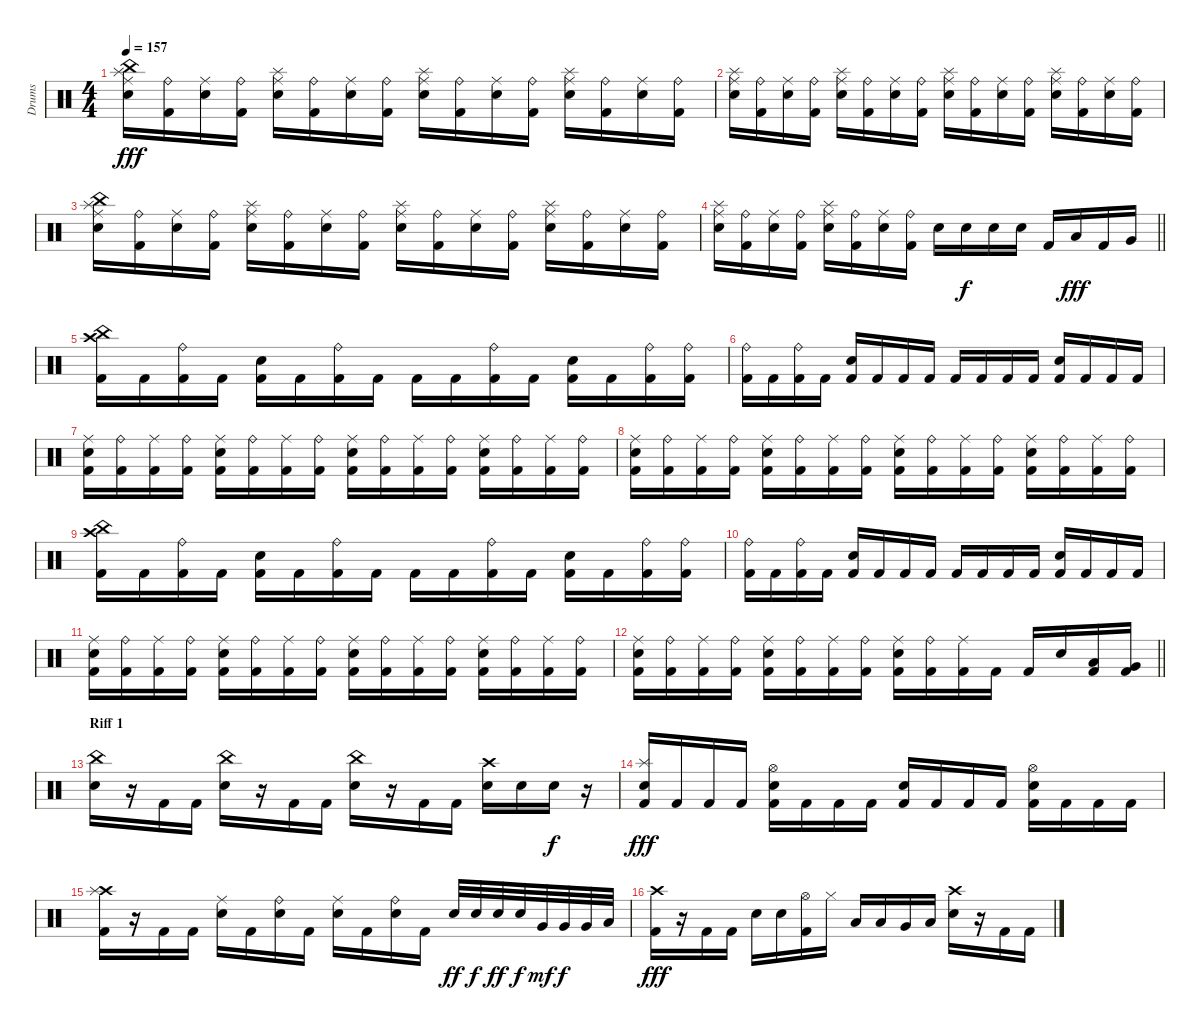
\track ("Drums" "Drums") {instrument percussion}
\staff {score}
\articulation defaults
\ts (4 4)
\tempo 157
\clef neutral
\ks c
("Snare (hit) 2" "Ride (middle)" "China (hit)" "Splash (hit)").16{dy fff} ("Kick (hit) 2" "Ride (bell)").16 ("Snare (hit) 2" "Ride (middle)").16 ("Kick (hit) 2" "Ride (bell)").16 ("Snare (hit) 2" "Ride (middle)" "Splash (hit)").16 ("Kick (hit) 2" "Ride (bell)").16 ("Snare (hit) 2" "Ride (middle)").16 ("Kick (hit) 2" "Ride (bell)").16 ("Snare (hit) 2" "Ride (middle)" "Splash (hit)").16 ("Kick (hit) 2" "Ride (bell)").16 ("Snare (hit) 2" "Ride (middle)").16 ("Kick (hit) 2" "Ride (bell)").16 ("Snare (hit) 2" "Ride (middle)" "Splash (hit)").16 ("Kick (hit) 2" "Ride (bell)").16 ("Snare (hit) 2" "Ride (middle)").16 ("Kick (hit) 2" "Ride (bell)").16 |
("Snare (hit) 2" "Ride (middle)" "Splash (hit)").16 ("Kick (hit) 2" "Ride (bell)").16 ("Snare (hit) 2" "Ride (middle)").16 ("Kick (hit) 2" "Ride (bell)").16 ("Snare (hit) 2" "Ride (middle)" "Splash (hit)").16 ("Kick (hit) 2" "Ride (bell)").16 ("Snare (hit) 2" "Ride (middle)").16 ("Kick (hit) 2" "Ride (bell)").16 ("Snare (hit) 2" "Ride (middle)" "Splash (hit)").16 ("Kick (hit) 2" "Ride (bell)").16 ("Snare (hit) 2" "Ride (middle)").16 ("Kick (hit) 2" "Ride (bell)").16 ("Snare (hit) 2" "Ride (middle)" "Splash (hit)").16 ("Kick (hit) 2" "Ride (bell)").16 ("Snare (hit) 2" "Ride (middle)").16 ("Kick (hit) 2" "Ride (bell)").16 |
("Snare (hit) 2" "Ride (middle)" "China (hit)" "Splash (hit)").16 ("Kick (hit) 2" "Ride (bell)").16 ("Snare (hit) 2" "Ride (middle)").16 ("Kick (hit) 2" "Ride (bell)").16 ("Snare (hit) 2" "Ride (middle)" "Splash (hit)").16 ("Kick (hit) 2" "Ride (bell)").16 ("Snare (hit) 2" "Ride (middle)").16 ("Kick (hit) 2" "Ride (bell)").16 ("Snare (hit) 2" "Ride (middle)" "Splash (hit)").16 ("Kick (hit) 2" "Ride (bell)").16 ("Snare (hit) 2" "Ride (middle)").16 ("Kick (hit) 2" "Ride (bell)").16 ("Snare (hit) 2" "Ride (middle)" "Splash (hit)").16 ("Kick (hit) 2" "Ride (bell)").16 ("Snare (hit) 2" "Ride (middle)").16 ("Kick (hit) 2" "Ride (bell)").16 |
\barLineRight lightlight
("Snare (hit) 2" "Ride (middle)" "Splash (hit)").16 ("Kick (hit) 2" "Ride (bell)").16 ("Snare (hit) 2" "Ride (middle)").16 ("Kick (hit) 2" "Ride (bell)").16 ("Snare (hit) 2" "Ride (middle)" "Splash (hit)").16 ("Kick (hit) 2" "Ride (bell)").16 ("Snare (hit) 2" "Ride (middle)").16 ("Kick (hit) 2" "Ride (bell)").16 "Snare (hit) 2".16 "Snare (hit) 2".16{dy f} "Snare (hit) 2".16 "Snare (hit) 2".16 "Kick (hit) 2".16 "Low Tom (hit)".16{dy fff} "Kick (hit) 2".16 "Very Low Tom (hit)".16 |
("Kick (hit) 2" "Crash high (hit)" "China (hit)").16 "Kick (hit) 2".16 ("Kick (hit) 2" "Ride (bell)").16 "Kick (hit) 2".16 ("Kick (hit) 2" "Snare (hit) 2").16 "Kick (hit) 2".16 ("Kick (hit) 2" "Ride (bell)").16 "Kick (hit) 2".16 "Kick (hit) 2".16 "Kick (hit) 2".16 ("Kick (hit) 2" "Ride (bell)").16 "Kick (hit) 2".16 ("Kick (hit) 2" "Snare (hit) 2").16 "Kick (hit) 2".16 ("Kick (hit) 2" "Ride (bell)").16 ("Kick (hit) 2" "Ride (bell)").16 |
("Kick (hit) 2" "Ride (bell)").16 "Kick (hit) 2".16 ("Kick (hit) 2" "Ride (bell)").16 "Kick (hit) 2".16 ("Kick (hit) 2" "Snare (hit) 2").16 "Kick (hit) 2".16 "Kick (hit) 2".16 "Kick (hit) 2".16 "Kick (hit) 2".16 "Kick (hit) 2".16 "Kick (hit) 2".16 "Kick (hit) 2".16 ("Kick (hit) 2" "Snare (hit) 2").16 "Kick (hit) 2".16 "Kick (hit) 2".16 "Kick (hit) 2".16 |
("Kick (hit) 2" "Snare (hit) 2" "Ride (middle)").16 ("Kick (hit) 2" "Ride (bell)").16 ("Kick (hit) 2" "Ride (middle)").16 ("Kick (hit) 2" "Ride (bell)").16 ("Kick (hit) 2" "Snare (hit) 2" "Ride (middle)").16 ("Kick (hit) 2" "Ride (bell)").16 ("Kick (hit) 2" "Ride (middle)").16 ("Kick (hit) 2" "Ride (bell)").16 ("Kick (hit) 2" "Snare (hit) 2" "Ride (middle)").16 ("Kick (hit) 2" "Ride (bell)").16 ("Kick (hit) 2" "Ride (middle)").16 ("Kick (hit) 2" "Ride (bell)").16 ("Kick (hit) 2" "Snare (hit) 2" "Ride (middle)").16 ("Kick (hit) 2" "Ride (bell)").16 ("Kick (hit) 2" "Ride (middle)").16 ("Kick (hit) 2" "Ride (bell)").16 |
("Kick (hit) 2" "Snare (hit) 2" "Ride (middle)").16 ("Kick (hit) 2" "Ride (bell)").16 ("Kick (hit) 2" "Ride (middle)").16 ("Kick (hit) 2" "Ride (bell)").16 ("Kick (hit) 2" "Snare (hit) 2" "Ride (middle)").16 ("Kick (hit) 2" "Ride (bell)").16 ("Kick (hit) 2" "Ride (middle)").16 ("Kick (hit) 2" "Ride (bell)").16 ("Kick (hit) 2" "Snare (hit) 2" "Ride (middle)").16 ("Kick (hit) 2" "Ride (bell)").16 ("Kick (hit) 2" "Ride (middle)").16 ("Kick (hit) 2" "Ride (bell)").16 ("Kick (hit) 2" "Snare (hit) 2" "Ride (middle)").16 ("Kick (hit) 2" "Ride (bell)").16 ("Kick (hit) 2" "Ride (middle)").16 ("Kick (hit) 2" "Ride (bell)").16 |
("Kick (hit) 2" "Crash high (hit)" "China (hit)").16 "Kick (hit) 2".16 ("Kick (hit) 2" "Ride (bell)").16 "Kick (hit) 2".16 ("Kick (hit) 2" "Snare (hit) 2").16 "Kick (hit) 2".16 ("Kick (hit) 2" "Ride (bell)").16 "Kick (hit) 2".16 "Kick (hit) 2".16 "Kick (hit) 2".16 ("Kick (hit) 2" "Ride (bell)").16 "Kick (hit) 2".16 ("Kick (hit) 2" "Snare (hit) 2").16 "Kick (hit) 2".16 ("Kick (hit) 2" "Ride (bell)").16 ("Kick (hit) 2" "Ride (bell)").16 |
("Kick (hit) 2" "Ride (bell)").16 "Kick (hit) 2".16 ("Kick (hit) 2" "Ride (bell)").16 "Kick (hit) 2".16 ("Kick (hit) 2" "Snare (hit) 2").16 "Kick (hit) 2".16 "Kick (hit) 2".16 "Kick (hit) 2".16 "Kick (hit) 2".16 "Kick (hit) 2".16 "Kick (hit) 2".16 "Kick (hit) 2".16 ("Kick (hit) 2" "Snare (hit) 2").16 "Kick (hit) 2".16 "Kick (hit) 2".16 "Kick (hit) 2".16 |
("Kick (hit) 2" "Snare (hit) 2" "Ride (middle)").16 ("Kick (hit) 2" "Ride (bell)").16 ("Kick (hit) 2" "Ride (middle)").16 ("Kick (hit) 2" "Ride (bell)").16 ("Kick (hit) 2" "Snare (hit) 2" "Ride (middle)").16 ("Kick (hit) 2" "Ride (bell)").16 ("Kick (hit) 2" "Ride (middle)").16 ("Kick (hit) 2" "Ride (bell)").16 ("Kick (hit) 2" "Snare (hit) 2" "Ride (middle)").16 ("Kick (hit) 2" "Ride (bell)").16 ("Kick (hit) 2" "Ride (middle)").16 ("Kick (hit) 2" "Ride (bell)").16 ("Kick (hit) 2" "Snare (hit) 2" "Ride (middle)").16 ("Kick (hit) 2" "Ride (bell)").16 ("Kick (hit) 2" "Ride (middle)").16 ("Kick (hit) 2" "Ride (bell)").16 |
\barLineRight lightlight
("Kick (hit) 2" "Snare (hit) 2" "Ride (middle)").16 ("Kick (hit) 2" "Ride (bell)").16 ("Kick (hit) 2" "Ride (middle)").16 ("Kick (hit) 2" "Ride (bell)").16 ("Kick (hit) 2" "Snare (hit) 2" "Ride (middle)").16 ("Kick (hit) 2" "Ride (bell)").16 ("Kick (hit) 2" "Ride (middle)").16 ("Kick (hit) 2" "Ride (bell)").16 ("Kick (hit) 2" "Snare (hit) 2" "Ride (middle)").16 ("Kick (hit) 2" "Ride (bell)").16 ("Kick (hit) 2" "Ride (middle)").16 "Kick (hit) 2".16 "Kick (hit) 2".16 "Snare (hit) 2".16 ("Kick (hit) 2" "Low Tom (hit)").16 ("Kick (hit) 2" "Very Low Tom (hit)").16 |
\section ("" "Riff 1")
("Snare (hit) 2" "China (hit)").16 r.16 "Kick (hit) 2".16 "Kick (hit) 2".16 ("Snare (hit) 2" "China (hit)").16 r.16 "Kick (hit) 2".16 "Kick (hit) 2".16 ("Snare (hit) 2" "China (hit)").16 r.16 "Kick (hit) 2".16 "Kick (hit) 2".16 ("Snare (hit) 2" "Crash high (hit)").16 "Snare (hit) 2".16 "Snare (hit) 2".16{dy f} r.16 |
("Kick (hit) 2" "Snare (hit) 2" "Splash (hit)").16{dy fff} "Kick (hit) 2".16 "Kick (hit) 2".16 "Kick (hit) 2".16 ("Kick (hit) 2" "Snare (hit) 2" "Hi-Hat (open)").16 "Kick (hit) 2".16 "Kick (hit) 2".16 "Kick (hit) 2".16 ("Kick (hit) 2" "Snare (hit) 2").16 "Kick (hit) 2".16 "Kick (hit) 2".16 "Kick (hit) 2".16 ("Kick (hit) 2" "Snare (hit) 2" "Hi-Hat (open)").16 "Kick (hit) 2".16 "Kick (hit) 2".16 "Kick (hit) 2".16 |
("Kick (hit) 2" "Crash high (hit)" "Splash (hit)").16 r.16 "Kick (hit) 2".16 "Kick (hit) 2".16 ("Snare (hit) 2" "Ride (middle)").16 "Kick (hit) 2".16 ("Snare (hit) 2" "Ride (bell)").16 "Kick (hit) 2".16 ("Snare (hit) 2" "Ride (middle)").16 "Kick (hit) 2".16 ("Snare (hit) 2" "Ride (bell)").16 "Kick (hit) 2".16 "Snare (hit) 2".32{dy ff} "Snare (hit) 2".32{dy f} "Snare (hit) 2".32{dy ff} "Snare (hit) 2".32{dy f} "Very Low Tom (hit)".32{dy mf} "Very Low Tom (hit)".32{dy f} "Very Low Tom (hit)".32 "Low Floor Tom (hit)".32 |
("Kick (hit) 2" "Crash high (hit)").16{dy fff} r.16 "Kick (hit) 2".16 "Kick (hit) 2".16 "Snare (hit) 2".16 "Snare (hit) 2".16 ("Kick (hit) 2" "Hi-Hat (open)").16 "Hi-Hat (closed)".16 "Low Tom (hit)".16 "Low Tom (hit)".16 "Very Low Tom (hit)".16 "Low Floor Tom (hit)".16 ("Snare (hit) 2" "Crash high (hit)").16 r.16 "Kick (hit) 2".16 "Kick (hit) 2".16
